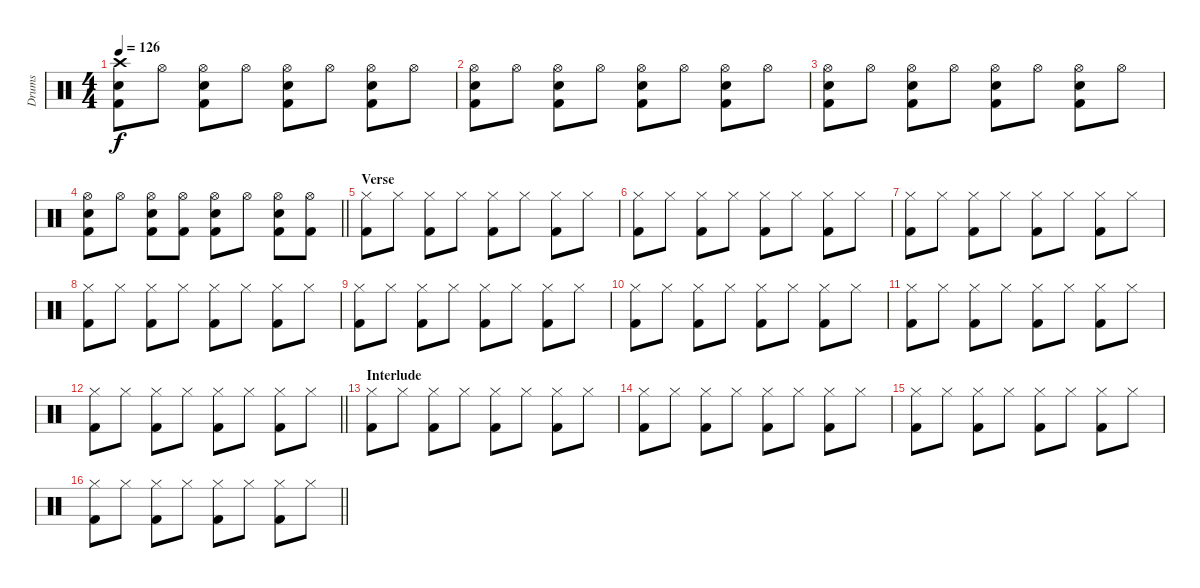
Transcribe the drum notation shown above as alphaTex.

\track ("Drums" "Drums") {instrument percussion}
\staff {score}
\articulation defaults
\ts (4 4)
\tempo 126
\clef neutral
\ks c
("Crash high (hit)" "Kick (hit) 2" "Electric Snare (hit)").8{dy f} "Hi-Hat (open)".8 ("Hi-Hat (open)" "Kick (hit) 2" "Electric Snare (hit)").8 "Hi-Hat (open)".8 ("Hi-Hat (open)" "Kick (hit) 2" "Electric Snare (hit)").8 "Hi-Hat (open)".8 ("Hi-Hat (open)" "Kick (hit) 2" "Electric Snare (hit)").8 "Hi-Hat (open)".8 |
("Hi-Hat (open)" "Kick (hit) 2" "Electric Snare (hit)").8 "Hi-Hat (open)".8 ("Hi-Hat (open)" "Kick (hit) 2" "Electric Snare (hit)").8 "Hi-Hat (open)".8 ("Hi-Hat (open)" "Kick (hit) 2" "Electric Snare (hit)").8 "Hi-Hat (open)".8 ("Hi-Hat (open)" "Kick (hit) 2" "Electric Snare (hit)").8 "Hi-Hat (open)".8 |
("Hi-Hat (open)" "Kick (hit) 2" "Electric Snare (hit)").8 "Hi-Hat (open)".8 ("Hi-Hat (open)" "Kick (hit) 2" "Electric Snare (hit)").8 "Hi-Hat (open)".8 ("Hi-Hat (open)" "Kick (hit) 2" "Electric Snare (hit)").8 "Hi-Hat (open)".8 ("Hi-Hat (open)" "Kick (hit) 2" "Electric Snare (hit)").8 "Hi-Hat (open)".8 |
\barLineRight lightlight
("Hi-Hat (open)" "Kick (hit) 2" "Electric Snare (hit)").8 "Hi-Hat (open)".8 ("Hi-Hat (open)" "Kick (hit) 2" "Electric Snare (hit)").8 ("Hi-Hat (open)" "Kick (hit) 2").8 ("Hi-Hat (open)" "Kick (hit) 2" "Electric Snare (hit)").8 "Hi-Hat (open)".8 ("Hi-Hat (open)" "Kick (hit) 2" "Electric Snare (hit)").8 ("Hi-Hat (open)" "Kick (hit) 2").8 |
\section ("" "Verse")
("Hi-Hat (closed)" "Kick (hit) 2").8 "Hi-Hat (closed)".8 ("Hi-Hat (closed)" "Kick (hit) 2").8 "Hi-Hat (closed)".8 ("Hi-Hat (closed)" "Kick (hit) 2").8 "Hi-Hat (closed)".8 ("Hi-Hat (closed)" "Kick (hit) 2").8 "Hi-Hat (closed)".8 |
("Hi-Hat (closed)" "Kick (hit) 2").8 "Hi-Hat (closed)".8 ("Hi-Hat (closed)" "Kick (hit) 2").8 "Hi-Hat (closed)".8 ("Hi-Hat (closed)" "Kick (hit) 2").8 "Hi-Hat (closed)".8 ("Hi-Hat (closed)" "Kick (hit) 2").8 "Hi-Hat (closed)".8 |
("Hi-Hat (closed)" "Kick (hit) 2").8 "Hi-Hat (closed)".8 ("Hi-Hat (closed)" "Kick (hit) 2").8 "Hi-Hat (closed)".8 ("Hi-Hat (closed)" "Kick (hit) 2").8 "Hi-Hat (closed)".8 ("Hi-Hat (closed)" "Kick (hit) 2").8 "Hi-Hat (closed)".8 |
("Hi-Hat (closed)" "Kick (hit) 2").8 "Hi-Hat (closed)".8 ("Hi-Hat (closed)" "Kick (hit) 2").8 "Hi-Hat (closed)".8 ("Hi-Hat (closed)" "Kick (hit) 2").8 "Hi-Hat (closed)".8 ("Hi-Hat (closed)" "Kick (hit) 2").8 "Hi-Hat (closed)".8 |
("Hi-Hat (closed)" "Kick (hit) 2").8 "Hi-Hat (closed)".8 ("Hi-Hat (closed)" "Kick (hit) 2").8 "Hi-Hat (closed)".8 ("Hi-Hat (closed)" "Kick (hit) 2").8 "Hi-Hat (closed)".8 ("Hi-Hat (closed)" "Kick (hit) 2").8 "Hi-Hat (closed)".8 |
("Hi-Hat (closed)" "Kick (hit) 2").8 "Hi-Hat (closed)".8 ("Hi-Hat (closed)" "Kick (hit) 2").8 "Hi-Hat (closed)".8 ("Hi-Hat (closed)" "Kick (hit) 2").8 "Hi-Hat (closed)".8 ("Hi-Hat (closed)" "Kick (hit) 2").8 "Hi-Hat (closed)".8 |
("Hi-Hat (closed)" "Kick (hit) 2").8 "Hi-Hat (closed)".8 ("Hi-Hat (closed)" "Kick (hit) 2").8 "Hi-Hat (closed)".8 ("Hi-Hat (closed)" "Kick (hit) 2").8 "Hi-Hat (closed)".8 ("Hi-Hat (closed)" "Kick (hit) 2").8 "Hi-Hat (closed)".8 |
\barLineRight lightlight
("Hi-Hat (closed)" "Kick (hit) 2").8 "Hi-Hat (closed)".8 ("Hi-Hat (closed)" "Kick (hit) 2").8 "Hi-Hat (closed)".8 ("Hi-Hat (closed)" "Kick (hit) 2").8 "Hi-Hat (closed)".8 ("Hi-Hat (closed)" "Kick (hit) 2").8 "Hi-Hat (closed)".8 |
\section ("" "Interlude")
("Hi-Hat (closed)" "Kick (hit) 2").8 "Hi-Hat (closed)".8 ("Hi-Hat (closed)" "Kick (hit) 2").8 "Hi-Hat (closed)".8 ("Hi-Hat (closed)" "Kick (hit) 2").8 "Hi-Hat (closed)".8 ("Hi-Hat (closed)" "Kick (hit) 2").8 "Hi-Hat (closed)".8 |
("Hi-Hat (closed)" "Kick (hit) 2").8 "Hi-Hat (closed)".8 ("Hi-Hat (closed)" "Kick (hit) 2").8 "Hi-Hat (closed)".8 ("Hi-Hat (closed)" "Kick (hit) 2").8 "Hi-Hat (closed)".8 ("Hi-Hat (closed)" "Kick (hit) 2").8 "Hi-Hat (closed)".8 |
("Hi-Hat (closed)" "Kick (hit) 2").8 "Hi-Hat (closed)".8 ("Hi-Hat (closed)" "Kick (hit) 2").8 "Hi-Hat (closed)".8 ("Hi-Hat (closed)" "Kick (hit) 2").8 "Hi-Hat (closed)".8 ("Hi-Hat (closed)" "Kick (hit) 2").8 "Hi-Hat (closed)".8 |
\barLineRight lightlight
("Hi-Hat (closed)" "Kick (hit) 2").8 "Hi-Hat (closed)".8 ("Hi-Hat (closed)" "Kick (hit) 2").8 "Hi-Hat (closed)".8 ("Hi-Hat (closed)" "Kick (hit) 2").8 "Hi-Hat (closed)".8 ("Hi-Hat (closed)" "Kick (hit) 2").8 "Hi-Hat (closed)".8
